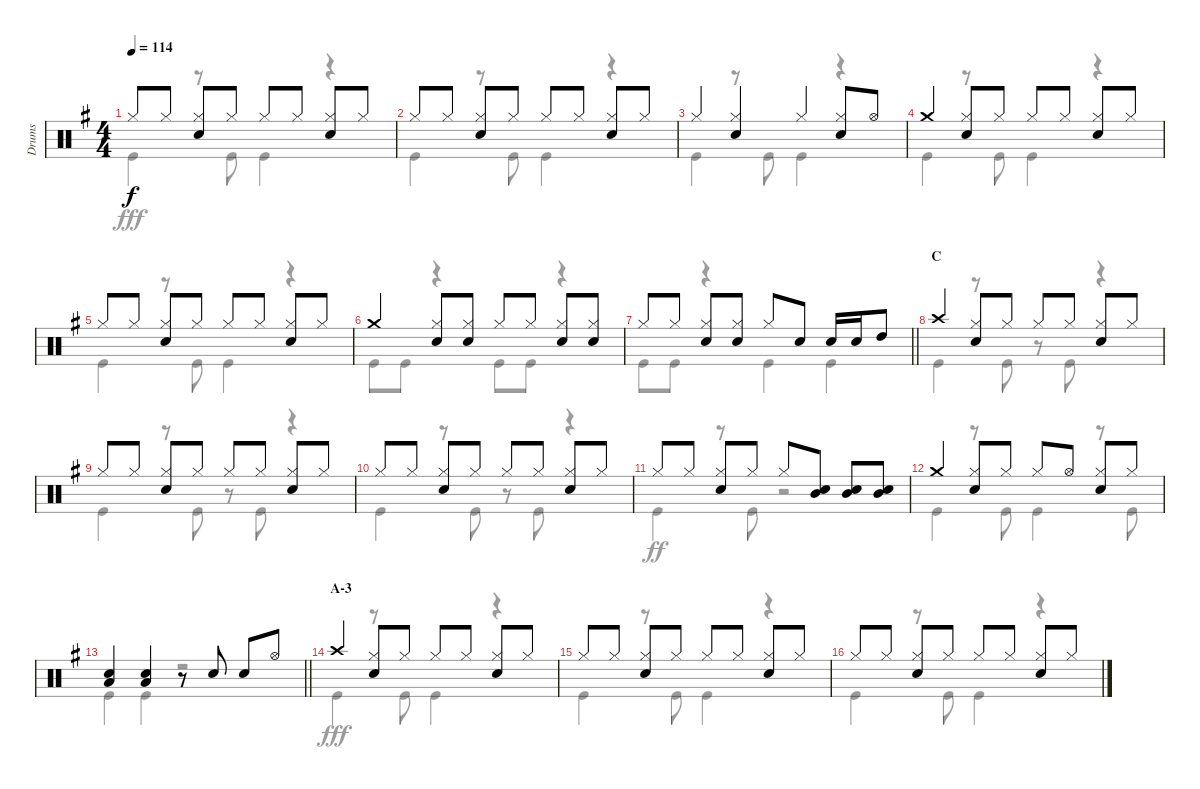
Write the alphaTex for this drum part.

\track ("Drums" "Drums") {instrument percussion}
\staff {score}
\articulation defaults
\voice
\ts (4 4)
\tempo 114
\clef neutral
\ks g "Hi-Hat (closed)".8{dy f} "Hi-Hat (closed)".8
("Hi-Hat (closed)" "Snare (hit) 2").8 "Hi-Hat (closed)".8 "Hi-Hat (closed)".8 "Hi-Hat (closed)".8 ("Hi-Hat (closed)" "Snare (hit) 2").8 "Hi-Hat (closed)".8 |
"Hi-Hat (closed)".8 "Hi-Hat (closed)".8 ("Hi-Hat (closed)" "Snare (hit) 2").8 "Hi-Hat (closed)".8 "Hi-Hat (closed)".8 "Hi-Hat (closed)".8 ("Hi-Hat (closed)" "Snare (hit) 2").8 "Hi-Hat (closed)".8 |
"Hi-Hat (closed)".4 ("Hi-Hat (closed)" "Snare (hit) 2").4 "Hi-Hat (closed)".4 ("Hi-Hat (closed)" "Snare (hit) 2").8 "Hi-Hat (open)".8 |
"Crash medium (hit)".4 ("Hi-Hat (closed)" "Snare (hit) 2").8 "Hi-Hat (closed)".8 "Hi-Hat (closed)".8 "Hi-Hat (closed)".8 ("Hi-Hat (closed)" "Snare (hit) 2").8 "Hi-Hat (closed)".8 |
"Hi-Hat (closed)".8 "Hi-Hat (closed)".8 ("Hi-Hat (closed)" "Snare (hit) 2").8 "Hi-Hat (closed)".8 "Hi-Hat (closed)".8 "Hi-Hat (closed)".8 ("Hi-Hat (closed)" "Snare (hit) 2").8 "Hi-Hat (closed)".8 |
"Crash medium (hit)".4 ("Hi-Hat (closed)" "Snare (hit) 2").8 ("Hi-Hat (closed)" "Snare (hit) 2").8 "Hi-Hat (closed)".8 "Hi-Hat (closed)".8 ("Hi-Hat (closed)" "Snare (hit) 2").8 ("Hi-Hat (closed)" "Snare (hit) 2").8 |
\barLineRight lightlight "Hi-Hat (closed)".8 "Hi-Hat (closed)".8
("Hi-Hat (closed)" "Snare (hit) 2").8 ("Hi-Hat (closed)" "Snare (hit) 2").8 "Hi-Hat (closed)".8 "Snare (hit) 2".8 "Snare (hit) 2".16 "Snare (hit) 2".16 "High Tom (hit)".8 |
\section ("" "C")
"Crash high (hit)".4 ("Hi-Hat (closed)" "Snare (hit) 2").8 "Hi-Hat (closed)".8 "Hi-Hat (closed)".8 "Hi-Hat (closed)".8 ("Hi-Hat (closed)" "Snare (hit) 2").8 "Hi-Hat (closed)".8 |
"Hi-Hat (closed)".8 "Hi-Hat (closed)".8 ("Hi-Hat (closed)" "Snare (hit) 2").8 "Hi-Hat (closed)".8 "Hi-Hat (closed)".8 "Hi-Hat (closed)".8 ("Hi-Hat (closed)" "Snare (hit) 2").8 "Hi-Hat (closed)".8 |
"Hi-Hat (closed)".8 "Hi-Hat (closed)".8 ("Hi-Hat (closed)" "Snare (hit) 2").8 "Hi-Hat (closed)".8 "Hi-Hat (closed)".8 "Hi-Hat (closed)".8 ("Hi-Hat (closed)" "Snare (hit) 2").8 "Hi-Hat (closed)".8 |
"Hi-Hat (closed)".8 "Hi-Hat (closed)".8 ("Hi-Hat (closed)" "Snare (hit) 2").8 "Hi-Hat (closed)".8 "Hi-Hat (closed)".8 ("Mid Tom (hit)" "Snare (hit) 2").8 ("Mid Tom (hit)" "Snare (hit) 2").8 ("Mid Tom (hit)" "Snare (hit) 2").8 |
"Crash medium (hit)".4 ("Hi-Hat (closed)" "Snare (hit) 2").8 "Hi-Hat (closed)".8 "Hi-Hat (closed)".8 "Hi-Hat (open)".8 ("Hi-Hat (closed)" "Snare (hit) 2").8 "Hi-Hat (closed)".8 |
\barLineRight lightlight
("Snare (hit) 2" "Low Tom (hit)").4 ("Snare (hit) 2" "Low Tom (hit)").4 r.8 "Snare (hit) 2".8 "Snare (hit) 2".8 "Hi-Hat (open)".8 |
\section ("" "A-3")
"Crash high (hit)".4 ("Hi-Hat (closed)" "Snare (hit) 2").8 "Hi-Hat (closed)".8 "Hi-Hat (closed)".8 "Hi-Hat (closed)".8 ("Hi-Hat (closed)" "Snare (hit) 2").8 "Hi-Hat (closed)".8 |
"Hi-Hat (closed)".8 "Hi-Hat (closed)".8 ("Hi-Hat (closed)" "Snare (hit) 2").8 "Hi-Hat (closed)".8 "Hi-Hat (closed)".8 "Hi-Hat (closed)".8 ("Hi-Hat (closed)" "Snare (hit) 2").8 "Hi-Hat (closed)".8 |
"Hi-Hat (closed)".8 "Hi-Hat (closed)".8 ("Hi-Hat (closed)" "Snare (hit) 2").8 "Hi-Hat (closed)".8 "Hi-Hat (closed)".8 "Hi-Hat (closed)".8 ("Hi-Hat (closed)" "Snare (hit) 2").8 "Hi-Hat (closed)".8
\voice
\clef neutral
\ottava regular
\simile none
\ks g "Kick (hit)".4{dy fff}
r.8 "Kick (hit)".8 "Kick (hit)".4 r.4 |
"Kick (hit)".4 r.8 "Kick (hit)".8 "Kick (hit)".4 r.4 |
"Kick (hit)".4 r.8 "Kick (hit)".8 "Kick (hit)".4 r.4 |
"Kick (hit)".4 r.8 "Kick (hit)".8 "Kick (hit)".4 r.4 |
"Kick (hit)".4 r.8 "Kick (hit)".8 "Kick (hit)".4 r.4 |
"Kick (hit)".8 "Kick (hit)".8 r.4 "Kick (hit)".8 "Kick (hit)".8 r.4 |
\barLineRight lightlight "Kick (hit)".8 "Kick (hit)".8
r.4 "Kick (hit)".4 "Kick (hit)".4 |
"Kick (hit)".4 r.8 "Kick (hit)".8 r.8 "Kick (hit)".8 r.4 |
"Kick (hit)".4 r.8 "Kick (hit)".8 r.8 "Kick (hit)".8 r.4 |
"Kick (hit)".4 r.8 "Kick (hit)".8 r.8 "Kick (hit)".8 r.4 |
"Kick (hit)".4{dy ff} r.8 "Kick (hit)".8 r.2 |
"Kick (hit)".4 r.8 "Kick (hit)".8 "Kick (hit)".4 r.8 "Kick (hit)".8 |
\barLineRight lightlight "Kick (hit)".4 "Kick (hit)".4
r.2 |
"Kick (hit)".4{dy fff} r.8 "Kick (hit)".8 "Kick (hit)".4 r.4 |
"Kick (hit)".4 r.8 "Kick (hit)".8 "Kick (hit)".4 r.4 |
"Kick (hit)".4 r.8 "Kick (hit)".8 "Kick (hit)".4 r.4
